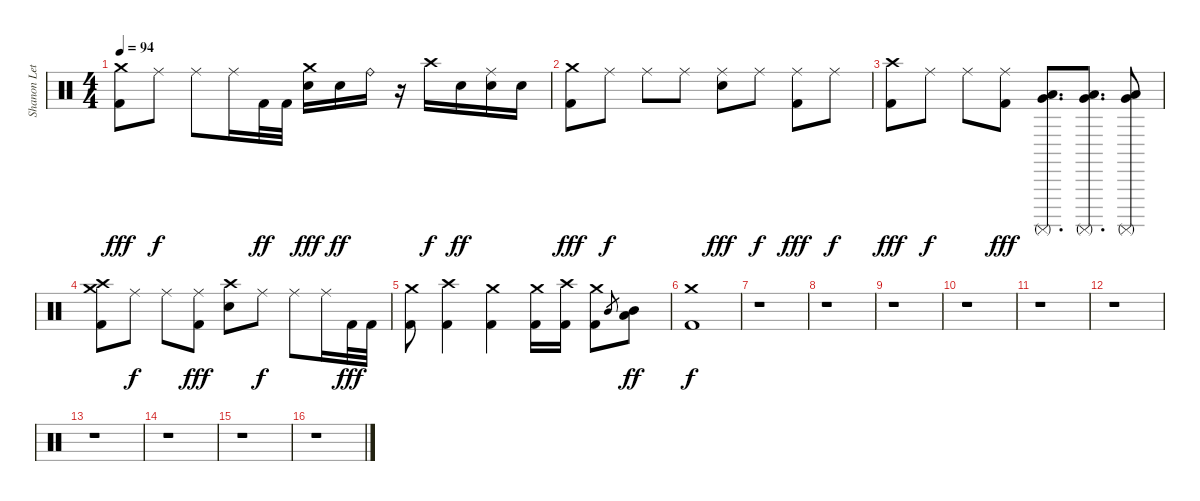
\track ("Shanon Leto" "Shanon Let") {instrument percussion}
\staff {score}
\articulation defaults
\ts (4 4)
\tempo 94
\clef neutral
\ks c
("Crash medium (hit)" "Kick (hit) 2").8{dy fff} "Ride (middle)".8{dy f} "Ride (middle)".8 "Ride (middle)".16 "Kick (hit) 2".32{dy ff} "Kick (hit) 2".32 ("Crash medium (hit)" "Snare (hit) 2").16{dy fff} "Snare (hit) 2".16{dy ff} "Ride (bell)".16 r.16 "Crash high (hit)".16{dy f} "Snare (hit) 2".16{dy ff} ("Ride (middle)" "Snare (hit) 2").16 "Snare (hit) 2".16 |
("Crash medium (hit)" "Kick (hit) 2").8{dy fff} "Ride (middle)".8{dy f} "Ride (middle)".8 "Ride (middle)".8 ("Ride (middle)" "Snare (hit) 2").8{dy fff} "Ride (middle)".8{dy f} ("Ride (middle)" "Kick (hit) 2").8{dy fff} "Ride (middle)".8{dy f} |
("Crash high (hit)" "Kick (hit) 2").8{dy fff} "Ride (middle)".8{dy f} "Ride (middle)".8 ("Ride (middle)" "Kick (hit) 2").8{dy fff} ("Surdo (mute)" "Low Tom (hit)" "Very Low Tom (hit)").8{d} ("Surdo (mute)" "Low Tom (hit)" "Very Low Tom (hit)").8{d} ("Surdo (mute)" "Low Tom (hit)" "Very Low Tom (hit)").8 |
("Crash medium (hit)" "Crash high (hit)" "Kick (hit) 2").8 "Ride (middle)".8{dy f} "Ride (middle)".8 ("Ride (middle)" "Kick (hit) 2").8{dy fff} ("Crash high (hit)" "Snare (hit) 2").8 "Ride (middle)".8{dy f} "Ride (middle)".8 "Ride (middle)".16 "Kick (hit) 2".32{dy fff} "Kick (hit) 2".32 |
("Crash medium (hit)" "Kick (hit) 2").8 ("Crash high (hit)" "Kick (hit) 2").4 ("Crash medium (hit)" "Kick (hit) 2").4 ("Crash medium (hit)" "Kick (hit) 2").16 ("Crash high (hit)" "Kick (hit) 2").16 ("Crash medium (hit)" "Kick (hit) 2").8 "Mid Tom (hit)".8{gr} ("Low Tom (hit)" "Mid Tom (hit)").8{dy ff} |
("Crash medium (hit)" "Kick (hit) 2").1{dy f} |
r.1 |
r.1 |
r.1 |
r.1 |
r.1 |
r.1 |
r.1 |
r.1 |
r.1 |
r.1
